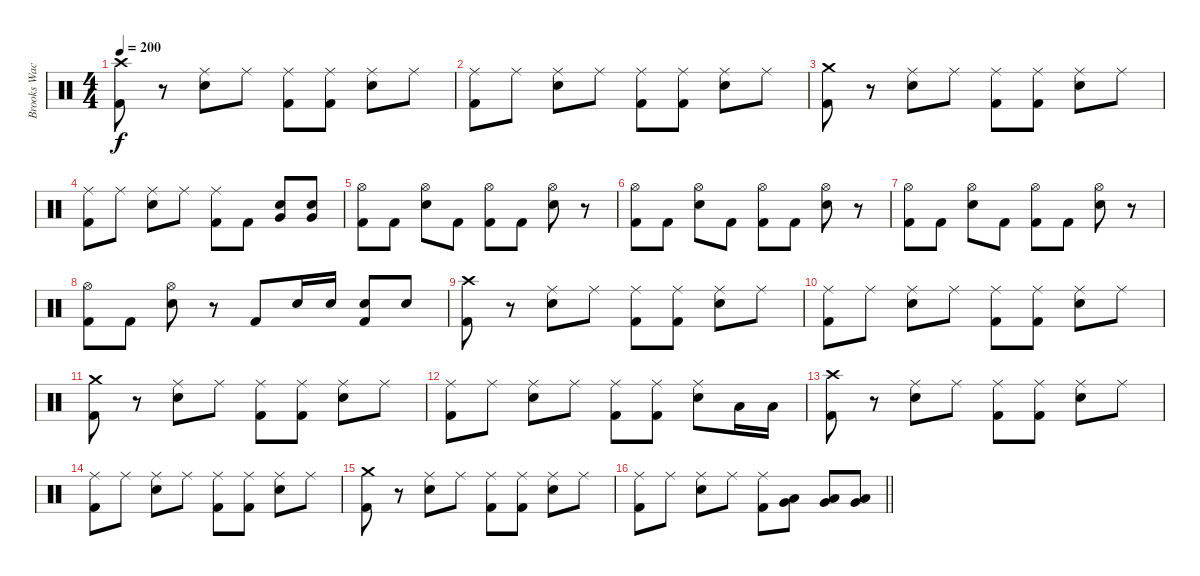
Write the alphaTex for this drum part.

\track ("Brooks Wackerman" "Brooks Wac") {instrument percussion}
\staff {score}
\articulation defaults
\ts (4 4)
\tempo 200
\clef neutral
\ks c
("Crash high (hit)" "Kick (hit) 2").8{dy f} r.8 ("Ride (middle)" "Electric Snare (hit)").8 "Ride (middle)".8 ("Ride (middle)" "Kick (hit) 2").8 ("Ride (middle)" "Kick (hit) 2").8 ("Ride (middle)" "Electric Snare (hit)").8 "Ride (middle)".8 |
("Ride (middle)" "Kick (hit) 2").8 "Ride (middle)".8 ("Ride (middle)" "Electric Snare (hit)").8 "Ride (middle)".8 ("Ride (middle)" "Kick (hit) 2").8 ("Ride (middle)" "Kick (hit) 2").8 ("Ride (middle)" "Electric Snare (hit)").8 "Ride (middle)".8 |
("Crash medium (hit)" "Kick (hit) 2").8 r.8 ("Ride (middle)" "Electric Snare (hit)").8 "Ride (middle)".8 ("Ride (middle)" "Kick (hit) 2").8 ("Ride (middle)" "Kick (hit) 2").8 ("Ride (middle)" "Electric Snare (hit)").8 "Ride (middle)".8 |
("Ride (middle)" "Kick (hit) 2").8 "Ride (middle)".8 ("Ride (middle)" "Electric Snare (hit)").8 "Ride (middle)".8 ("Ride (middle)" "Kick (hit) 2").8 "Kick (hit) 2".8 ("Very Low Tom (hit)" "Electric Snare (hit)").8 ("Very Low Tom (hit)" "Electric Snare (hit)").8 |
("Hi-Hat (open)" "Kick (hit) 2").8 "Kick (hit) 2".8 ("Hi-Hat (open)" "Electric Snare (hit)").8 "Kick (hit) 2".8 ("Hi-Hat (open)" "Kick (hit) 2").8 "Kick (hit) 2".8 ("Hi-Hat (open)" "Electric Snare (hit)").8 r.8 |
("Hi-Hat (open)" "Kick (hit) 2").8 "Kick (hit) 2".8 ("Hi-Hat (open)" "Electric Snare (hit)").8 "Kick (hit) 2".8 ("Hi-Hat (open)" "Kick (hit) 2").8 "Kick (hit) 2".8 ("Hi-Hat (open)" "Electric Snare (hit)").8 r.8 |
("Hi-Hat (open)" "Kick (hit) 2").8 "Kick (hit) 2".8 ("Hi-Hat (open)" "Electric Snare (hit)").8 "Kick (hit) 2".8 ("Hi-Hat (open)" "Kick (hit) 2").8 "Kick (hit) 2".8 ("Hi-Hat (open)" "Electric Snare (hit)").8 r.8 |
("Hi-Hat (open)" "Kick (hit) 2").8 "Kick (hit) 2".8 ("Hi-Hat (open)" "Electric Snare (hit)").8 r.8 "Kick (hit) 2".8 "Electric Snare (hit)".16 "Electric Snare (hit)".16 ("Electric Snare (hit)" "Kick (hit) 2").8 "Electric Snare (hit)".8 |
("Crash high (hit)" "Kick (hit) 2").8 r.8 ("Ride (middle)" "Electric Snare (hit)").8 "Ride (middle)".8 ("Ride (middle)" "Kick (hit) 2").8 ("Ride (middle)" "Kick (hit) 2").8 ("Ride (middle)" "Electric Snare (hit)").8 "Ride (middle)".8 |
("Ride (middle)" "Kick (hit) 2").8 "Ride (middle)".8 ("Ride (middle)" "Electric Snare (hit)").8 "Ride (middle)".8 ("Ride (middle)" "Kick (hit) 2").8 ("Ride (middle)" "Kick (hit) 2").8 ("Ride (middle)" "Electric Snare (hit)").8 "Ride (middle)".8 |
("Crash medium (hit)" "Kick (hit) 2").8 r.8 ("Ride (middle)" "Electric Snare (hit)").8 "Ride (middle)".8 ("Ride (middle)" "Kick (hit) 2").8 ("Ride (middle)" "Kick (hit) 2").8 ("Ride (middle)" "Electric Snare (hit)").8 "Ride (middle)".8 |
("Ride (middle)" "Kick (hit) 2").8 "Ride (middle)".8 ("Ride (middle)" "Electric Snare (hit)").8 "Ride (middle)".8 ("Ride (middle)" "Kick (hit) 2").8 ("Ride (middle)" "Kick (hit) 2").8 ("Ride (middle)" "Electric Snare (hit)").8 "Low Tom (hit)".16 "Low Tom (hit)".16 |
("Crash high (hit)" "Kick (hit) 2").8 r.8 ("Ride (middle)" "Electric Snare (hit)").8 "Ride (middle)".8 ("Ride (middle)" "Kick (hit) 2").8 ("Ride (middle)" "Kick (hit) 2").8 ("Ride (middle)" "Electric Snare (hit)").8 "Ride (middle)".8 |
("Ride (middle)" "Kick (hit) 2").8 "Ride (middle)".8 ("Ride (middle)" "Electric Snare (hit)").8 "Ride (middle)".8 ("Ride (middle)" "Kick (hit) 2").8 ("Ride (middle)" "Kick (hit) 2").8 ("Ride (middle)" "Electric Snare (hit)").8 "Ride (middle)".8 |
("Crash medium (hit)" "Kick (hit) 2").8 r.8 ("Ride (middle)" "Electric Snare (hit)").8 "Ride (middle)".8 ("Ride (middle)" "Kick (hit) 2").8 ("Ride (middle)" "Kick (hit) 2").8 ("Ride (middle)" "Electric Snare (hit)").8 "Ride (middle)".8 |
\barLineRight lightlight
("Ride (middle)" "Kick (hit) 2").8 "Ride (middle)".8 ("Ride (middle)" "Electric Snare (hit)").8 "Ride (middle)".8 ("Ride (middle)" "Kick (hit) 2").8 ("Low Tom (hit)" "Very Low Tom (hit)").8 ("Low Tom (hit)" "Very Low Tom (hit)").8 ("Low Tom (hit)" "Very Low Tom (hit)").8
